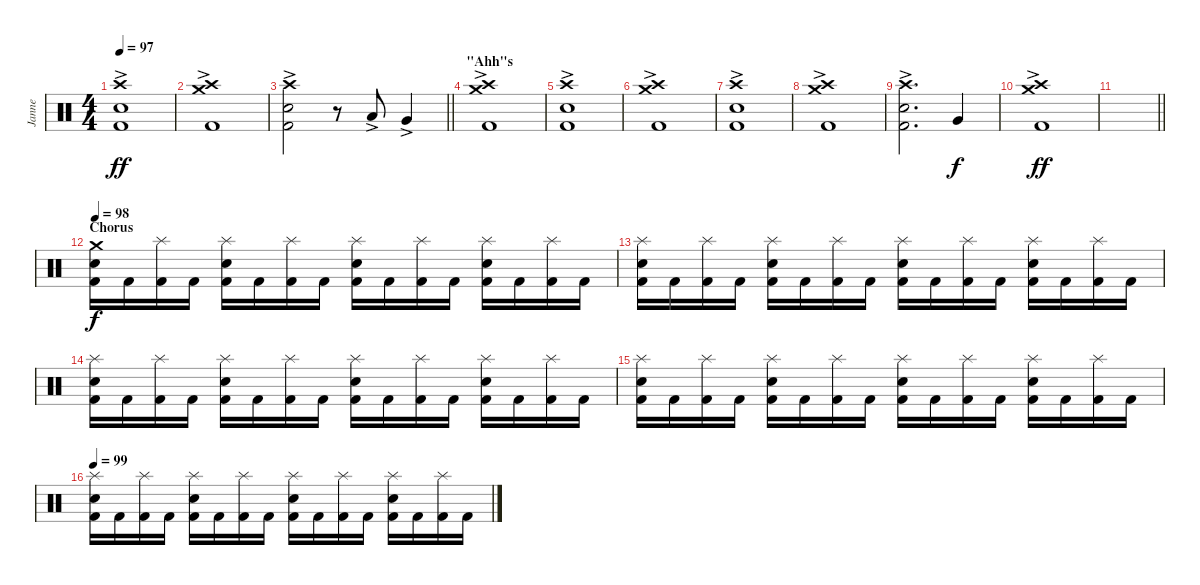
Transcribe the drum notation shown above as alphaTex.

\track ("Janne" "Janne") {instrument percussion}
\staff {score}
\articulation defaults
\ts (4 4)
\tempo 97
\clef neutral
\ks c
("Kick (hit) 2"{ac} "Snare (hit) 2"{ac} "Crash high (hit)").1{dy ff} |
("Kick (hit) 2"{ac} "Crash medium (hit)" "Crash high (hit)").1 |
\barLineRight lightlight
("Kick (hit) 2"{ac} "Snare (hit) 2"{ac} "Crash high (hit)").2 r.8 "Low Tom (hit)"{ac}.8 "Very Low Tom (hit)"{ac}.4 |
\section ("" "\"Ahh\"s")
("Kick (hit) 2"{ac} "Crash medium (hit)" "Crash high (hit)").1 |
("Kick (hit) 2"{ac} "Snare (hit) 2"{ac} "Crash high (hit)").1 |
("Kick (hit) 2"{ac} "Crash medium (hit)" "Crash high (hit)").1 |
("Kick (hit) 2"{ac} "Snare (hit) 2"{ac} "Crash high (hit)").1 |
("Kick (hit) 2"{ac} "Crash medium (hit)" "Crash high (hit)").1 |
("Kick (hit) 2"{ac} "Snare (hit) 2"{ac} "Crash high (hit)").2{d} "Very Low Tom (hit)".4{dy f} |
("Kick (hit) 2"{ac} "Crash medium (hit)" "Crash high (hit)").1{dy ff} |
\barLineRight lightlight
|
\section ("" "Chorus")
\tempo 98
("Kick (hit) 2" "Snare (hit) 2" "Crash medium (hit)").16{dy f} "Kick (hit) 2".16 ("Kick (hit) 2" "Splash (hit)").16 "Kick (hit) 2".16 ("Kick (hit) 2" "Snare (hit) 2" "Splash (hit)").16 "Kick (hit) 2".16 ("Kick (hit) 2" "Splash (hit)").16 "Kick (hit) 2".16 ("Kick (hit) 2" "Snare (hit) 2" "Splash (hit)").16 "Kick (hit) 2".16 ("Kick (hit) 2" "Splash (hit)").16 "Kick (hit) 2".16 ("Kick (hit) 2" "Snare (hit) 2" "Splash (hit)").16 "Kick (hit) 2".16 ("Kick (hit) 2" "Splash (hit)").16 "Kick (hit) 2".16 |
("Kick (hit) 2" "Snare (hit) 2" "Splash (hit)").16 "Kick (hit) 2".16 ("Kick (hit) 2" "Splash (hit)").16 "Kick (hit) 2".16 ("Kick (hit) 2" "Snare (hit) 2" "Splash (hit)").16 "Kick (hit) 2".16 ("Kick (hit) 2" "Splash (hit)").16 "Kick (hit) 2".16 ("Kick (hit) 2" "Snare (hit) 2" "Splash (hit)").16 "Kick (hit) 2".16 ("Kick (hit) 2" "Splash (hit)").16 "Kick (hit) 2".16 ("Kick (hit) 2" "Snare (hit) 2" "Splash (hit)").16 "Kick (hit) 2".16 ("Kick (hit) 2" "Splash (hit)").16 "Kick (hit) 2".16 |
("Kick (hit) 2" "Snare (hit) 2" "Splash (hit)").16 "Kick (hit) 2".16 ("Kick (hit) 2" "Splash (hit)").16 "Kick (hit) 2".16 ("Kick (hit) 2" "Snare (hit) 2" "Splash (hit)").16 "Kick (hit) 2".16 ("Kick (hit) 2" "Splash (hit)").16 "Kick (hit) 2".16 ("Kick (hit) 2" "Snare (hit) 2" "Splash (hit)").16 "Kick (hit) 2".16 ("Kick (hit) 2" "Splash (hit)").16 "Kick (hit) 2".16 ("Kick (hit) 2" "Snare (hit) 2" "Splash (hit)").16 "Kick (hit) 2".16 ("Kick (hit) 2" "Splash (hit)").16 "Kick (hit) 2".16 |
("Kick (hit) 2" "Snare (hit) 2" "Splash (hit)").16 "Kick (hit) 2".16 ("Kick (hit) 2" "Splash (hit)").16 "Kick (hit) 2".16 ("Kick (hit) 2" "Snare (hit) 2" "Splash (hit)").16 "Kick (hit) 2".16 ("Kick (hit) 2" "Splash (hit)").16 "Kick (hit) 2".16 ("Kick (hit) 2" "Snare (hit) 2" "Splash (hit)").16 "Kick (hit) 2".16 ("Kick (hit) 2" "Splash (hit)").16 "Kick (hit) 2".16 ("Kick (hit) 2" "Snare (hit) 2" "Splash (hit)").16 "Kick (hit) 2".16 ("Kick (hit) 2" "Splash (hit)").16 "Kick (hit) 2".16 |
\tempo 99
("Kick (hit) 2" "Snare (hit) 2" "Splash (hit)").16 "Kick (hit) 2".16 ("Kick (hit) 2" "Splash (hit)").16 "Kick (hit) 2".16 ("Kick (hit) 2" "Snare (hit) 2" "Splash (hit)").16 "Kick (hit) 2".16 ("Kick (hit) 2" "Splash (hit)").16 "Kick (hit) 2".16 ("Kick (hit) 2" "Snare (hit) 2" "Splash (hit)").16 "Kick (hit) 2".16 ("Kick (hit) 2" "Splash (hit)").16 "Kick (hit) 2".16 ("Kick (hit) 2" "Snare (hit) 2" "Splash (hit)").16 "Kick (hit) 2".16 ("Kick (hit) 2" "Splash (hit)").16 "Kick (hit) 2".16
